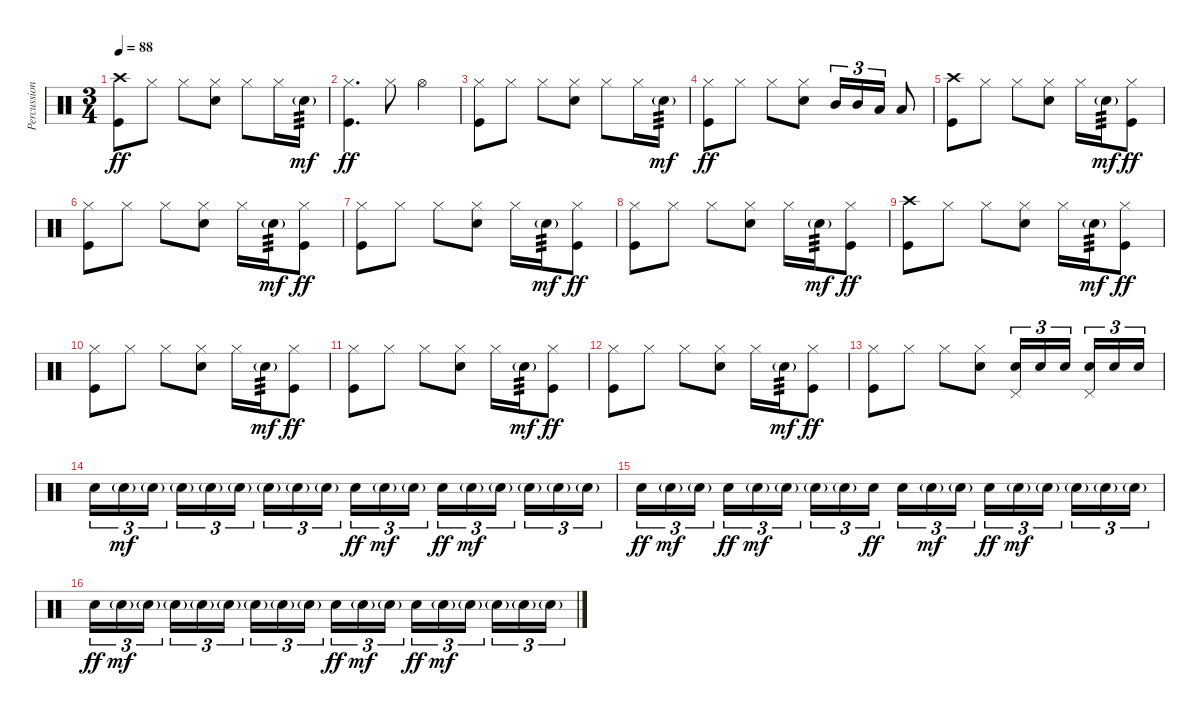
\track ("Percussion" "Percussion") {instrument percussion}
\staff {score}
\articulation defaults
\ts (3 4)
\tempo 88
\clef neutral
\ks c
("Kick (hit)" "Crash high (hit)").8{dy ff} "Hi-Hat (closed)".8 "Hi-Hat (closed)".8 ("Snare (hit) 2" "Hi-Hat (closed)").8 "Hi-Hat (closed)".8 "Hi-Hat (closed)".16 "Snare (hit) 2"{g}.16{tp 3 dy mf} |
("Hi-Hat (closed)" "Kick (hit)").4{d dy ff} "Hi-Hat (closed)".8 "Hi-Hat (open)".4 |
("Kick (hit)" "Hi-Hat (closed)").8 "Hi-Hat (closed)".8 "Hi-Hat (closed)".8 ("Snare (hit) 2" "Hi-Hat (closed)").8 "Hi-Hat (closed)".8 "Hi-Hat (closed)".16 "Snare (hit) 2"{g}.16{tp 3 dy mf} |
("Kick (hit)" "Hi-Hat (closed)").8{dy ff} "Hi-Hat (closed)".8 "Hi-Hat (closed)".8 ("Snare (hit) 2" "Hi-Hat (closed)").8 "Mid Tom (hit)".16{tu (3 2)} "Mid Tom (hit)".16{tu (3 2)} "Low Tom (hit)".16{tu (3 2)} "Low Tom (hit)".8 |
("Kick (hit)" "Crash high (hit)").8 "Hi-Hat (closed)".8 "Hi-Hat (closed)".8 ("Snare (hit) 2" "Hi-Hat (closed)").8 "Hi-Hat (closed)".16 "Snare (hit) 2"{g}.16{tp 3 dy mf} ("Hi-Hat (closed)" "Kick (hit)").8{dy ff} |
("Kick (hit)" "Hi-Hat (closed)").8 "Hi-Hat (closed)".8 "Hi-Hat (closed)".8 ("Snare (hit) 2" "Hi-Hat (closed)").8 "Hi-Hat (closed)".16 "Snare (hit) 2"{g}.16{tp 3 dy mf} ("Hi-Hat (closed)" "Kick (hit)").8{dy ff} |
("Kick (hit)" "Hi-Hat (closed)").8 "Hi-Hat (closed)".8 "Hi-Hat (closed)".8 ("Snare (hit) 2" "Hi-Hat (closed)").8 "Hi-Hat (closed)".16 "Snare (hit) 2"{g}.16{tp 3 dy mf} ("Hi-Hat (closed)" "Kick (hit)").8{dy ff} |
("Kick (hit)" "Hi-Hat (closed)").8 "Hi-Hat (closed)".8 "Hi-Hat (closed)".8 ("Snare (hit) 2" "Hi-Hat (closed)").8 "Hi-Hat (closed)".16 "Snare (hit) 2"{g}.16{tp 3 dy mf} ("Hi-Hat (closed)" "Kick (hit)").8{dy ff} |
("Kick (hit)" "Crash high (hit)").8 "Hi-Hat (closed)".8 "Hi-Hat (closed)".8 ("Snare (hit) 2" "Hi-Hat (closed)").8 "Hi-Hat (closed)".16 "Snare (hit) 2"{g}.16{tp 3 dy mf} ("Hi-Hat (closed)" "Kick (hit)").8{dy ff} |
("Kick (hit)" "Hi-Hat (closed)").8 "Hi-Hat (closed)".8 "Hi-Hat (closed)".8 ("Snare (hit) 2" "Hi-Hat (closed)").8 "Hi-Hat (closed)".16 "Snare (hit) 2"{g}.16{tp 3 dy mf} ("Hi-Hat (closed)" "Kick (hit)").8{dy ff} |
("Kick (hit)" "Hi-Hat (closed)").8 "Hi-Hat (closed)".8 "Hi-Hat (closed)".8 ("Snare (hit) 2" "Hi-Hat (closed)").8 "Hi-Hat (closed)".16 "Snare (hit) 2"{g}.16{tp 3 dy mf} ("Hi-Hat (closed)" "Kick (hit)").8{dy ff} |
("Kick (hit)" "Hi-Hat (closed)").8 "Hi-Hat (closed)".8 "Hi-Hat (closed)".8 ("Snare (hit) 2" "Hi-Hat (closed)").8 "Hi-Hat (closed)".16 "Snare (hit) 2"{g}.16{tp 3 dy mf} ("Hi-Hat (closed)" "Kick (hit)").8{dy ff} |
("Kick (hit)" "Hi-Hat (closed)").8 "Hi-Hat (closed)".8 "Hi-Hat (closed)".8 ("Snare (hit) 2" "Hi-Hat (closed)").8 ("Snare (hit) 2" "Pedal Hi-Hat (hit)").16{tu (3 2)} "Snare (hit) 2".16{tu (3 2)} "Snare (hit) 2".16{tu (3 2) beam splitsecondary} ("Snare (hit) 2" "Pedal Hi-Hat (hit)").16{tu (3 2)} "Snare (hit) 2".16{tu (3 2)} "Snare (hit) 2".16{tu (3 2)} |
"Snare (hit) 2".16{tu (3 2)} "Snare (hit) 2"{g}.16{tu (3 2) dy mf} "Snare (hit) 2"{g}.16{tu (3 2) beam splitsecondary} "Snare (hit) 2"{g}.16{tu (3 2)} "Snare (hit) 2"{g}.16{tu (3 2)} "Snare (hit) 2"{g}.16{tu (3 2)} "Snare (hit) 2"{g}.16{tu (3 2)} "Snare (hit) 2"{g}.16{tu (3 2)} "Snare (hit) 2"{g}.16{tu (3 2) beam splitsecondary} "Snare (hit) 2".16{tu (3 2) dy ff} "Snare (hit) 2"{g}.16{tu (3 2) dy mf} "Snare (hit) 2"{g}.16{tu (3 2)} "Snare (hit) 2".16{tu (3 2) dy ff} "Snare (hit) 2"{g}.16{tu (3 2) dy mf} "Snare (hit) 2"{g}.16{tu (3 2) beam splitsecondary} "Snare (hit) 2"{g}.16{tu (3 2)} "Snare (hit) 2"{g}.16{tu (3 2)} "Snare (hit) 2"{g}.16{tu (3 2)} |
"Snare (hit) 2".16{tu (3 2) dy ff} "Snare (hit) 2"{g}.16{tu (3 2) dy mf} "Snare (hit) 2"{g}.16{tu (3 2) beam splitsecondary} "Snare (hit) 2".16{tu (3 2) dy ff} "Snare (hit) 2"{g}.16{tu (3 2) dy mf} "Snare (hit) 2"{g}.16{tu (3 2)} "Snare (hit) 2"{g}.16{tu (3 2)} "Snare (hit) 2"{g}.16{tu (3 2)} "Snare (hit) 2".16{tu (3 2) dy ff beam splitsecondary} "Snare (hit) 2".16{tu (3 2)} "Snare (hit) 2"{g}.16{tu (3 2) dy mf} "Snare (hit) 2"{g}.16{tu (3 2)} "Snare (hit) 2".16{tu (3 2) dy ff} "Snare (hit) 2"{g}.16{tu (3 2) dy mf} "Snare (hit) 2"{g}.16{tu (3 2) beam splitsecondary} "Snare (hit) 2"{g}.16{tu (3 2)} "Snare (hit) 2"{g}.16{tu (3 2)} "Snare (hit) 2"{g}.16{tu (3 2)} |
"Snare (hit) 2".16{tu (3 2) dy ff} "Snare (hit) 2"{g}.16{tu (3 2) dy mf} "Snare (hit) 2"{g}.16{tu (3 2) beam splitsecondary} "Snare (hit) 2"{g}.16{tu (3 2)} "Snare (hit) 2"{g}.16{tu (3 2)} "Snare (hit) 2"{g}.16{tu (3 2)} "Snare (hit) 2"{g}.16{tu (3 2)} "Snare (hit) 2"{g}.16{tu (3 2)} "Snare (hit) 2"{g}.16{tu (3 2) beam splitsecondary} "Snare (hit) 2".16{tu (3 2) dy ff} "Snare (hit) 2"{g}.16{tu (3 2) dy mf} "Snare (hit) 2"{g}.16{tu (3 2)} "Snare (hit) 2".16{tu (3 2) dy ff} "Snare (hit) 2"{g}.16{tu (3 2) dy mf} "Snare (hit) 2"{g}.16{tu (3 2) beam splitsecondary} "Snare (hit) 2"{g}.16{tu (3 2)} "Snare (hit) 2"{g}.16{tu (3 2)} "Snare (hit) 2"{g}.16{tu (3 2)}
